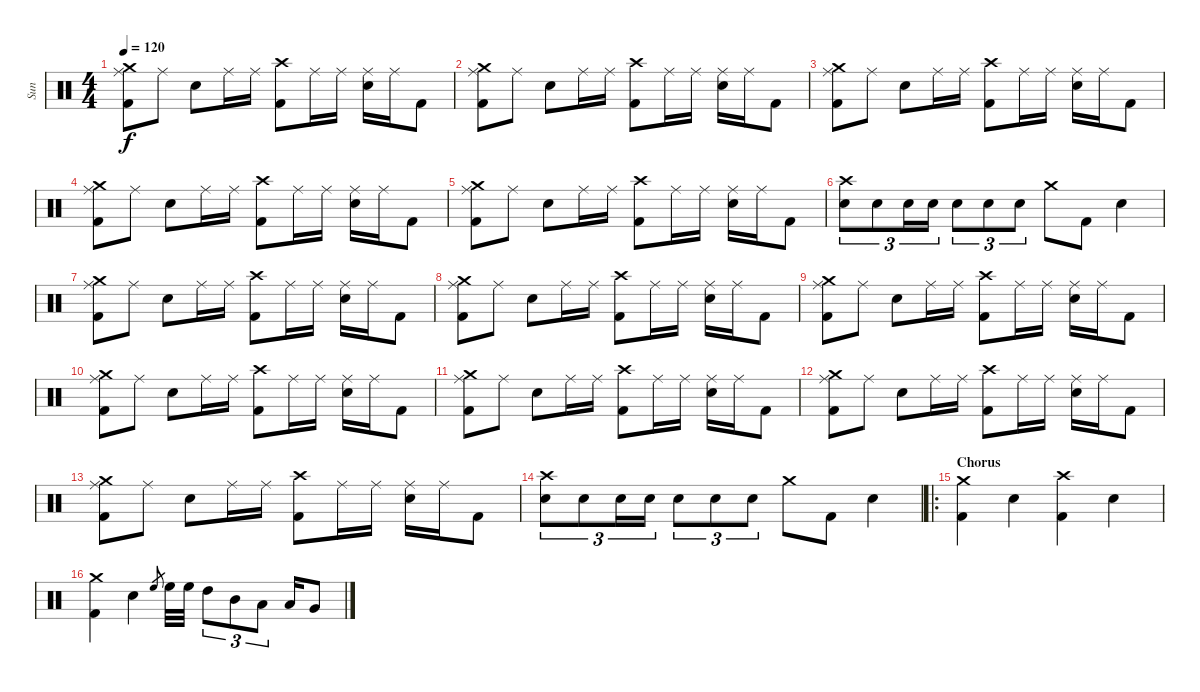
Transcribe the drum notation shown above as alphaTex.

\track ("Sun" "Sun") {instrument percussion}
\staff {score}
\articulation defaults
\ts (4 4)
\tempo 120
\clef neutral
\ks c
("Ride (middle)" "Crash medium (hit)" "Kick (hit) 2").8{dy f} "Ride (middle)".8 "Electric Snare (hit)".8 "Ride (middle)".16 "Ride (middle)".16 ("Crash high (hit)" "Kick (hit) 2").8 "Ride (middle)".16 "Ride (middle)".16 ("Ride (middle)" "Electric Snare (hit)").16 "Ride (middle)".16 "Kick (hit) 2".8 |
("Ride (middle)" "Crash medium (hit)" "Kick (hit) 2").8 "Ride (middle)".8 "Electric Snare (hit)".8 "Ride (middle)".16 "Ride (middle)".16 ("Crash high (hit)" "Kick (hit) 2").8 "Ride (middle)".16 "Ride (middle)".16 ("Ride (middle)" "Electric Snare (hit)").16 "Ride (middle)".16 "Kick (hit) 2".8 |
("Ride (middle)" "Crash medium (hit)" "Kick (hit) 2").8 "Ride (middle)".8 "Electric Snare (hit)".8 "Ride (middle)".16 "Ride (middle)".16 ("Crash high (hit)" "Kick (hit) 2").8 "Ride (middle)".16 "Ride (middle)".16 ("Ride (middle)" "Electric Snare (hit)").16 "Ride (middle)".16 "Kick (hit) 2".8 |
("Ride (middle)" "Crash medium (hit)" "Kick (hit) 2").8 "Ride (middle)".8 "Electric Snare (hit)".8 "Ride (middle)".16 "Ride (middle)".16 ("Crash high (hit)" "Kick (hit) 2").8 "Ride (middle)".16 "Ride (middle)".16 ("Ride (middle)" "Electric Snare (hit)").16 "Ride (middle)".16 "Kick (hit) 2".8 |
("Ride (middle)" "Crash medium (hit)" "Kick (hit) 2").8 "Ride (middle)".8 "Electric Snare (hit)".8 "Ride (middle)".16 "Ride (middle)".16 ("Crash high (hit)" "Kick (hit) 2").8 "Ride (middle)".16 "Ride (middle)".16 ("Ride (middle)" "Electric Snare (hit)").16 "Ride (middle)".16 "Kick (hit) 2".8 |
("Crash high (hit)" "Electric Snare (hit)").8{tu (3 2)} "Electric Snare (hit)".8{tu (3 2)} "Electric Snare (hit)".16{tu (3 2)} "Electric Snare (hit)".16{tu (3 2)} "Electric Snare (hit)".8{tu (3 2)} "Electric Snare (hit)".8{tu (3 2)} "Electric Snare (hit)".8{tu (3 2)} "Crash medium (hit)".8 "Kick (hit) 2".8 "Electric Snare (hit)".4 |
("Ride (middle)" "Crash medium (hit)" "Kick (hit) 2").8 "Ride (middle)".8 "Electric Snare (hit)".8 "Ride (middle)".16 "Ride (middle)".16 ("Crash high (hit)" "Kick (hit) 2").8 "Ride (middle)".16 "Ride (middle)".16 ("Ride (middle)" "Electric Snare (hit)").16 "Ride (middle)".16 "Kick (hit) 2".8 |
("Ride (middle)" "Crash medium (hit)" "Kick (hit) 2").8 "Ride (middle)".8 "Electric Snare (hit)".8 "Ride (middle)".16 "Ride (middle)".16 ("Crash high (hit)" "Kick (hit) 2").8 "Ride (middle)".16 "Ride (middle)".16 ("Ride (middle)" "Electric Snare (hit)").16 "Ride (middle)".16 "Kick (hit) 2".8 |
("Ride (middle)" "Crash medium (hit)" "Kick (hit) 2").8 "Ride (middle)".8 "Electric Snare (hit)".8 "Ride (middle)".16 "Ride (middle)".16 ("Crash high (hit)" "Kick (hit) 2").8 "Ride (middle)".16 "Ride (middle)".16 ("Ride (middle)" "Electric Snare (hit)").16 "Ride (middle)".16 "Kick (hit) 2".8 |
("Ride (middle)" "Crash medium (hit)" "Kick (hit) 2").8 "Ride (middle)".8 "Electric Snare (hit)".8 "Ride (middle)".16 "Ride (middle)".16 ("Crash high (hit)" "Kick (hit) 2").8 "Ride (middle)".16 "Ride (middle)".16 ("Ride (middle)" "Electric Snare (hit)").16 "Ride (middle)".16 "Kick (hit) 2".8 |
("Ride (middle)" "Crash medium (hit)" "Kick (hit) 2").8 "Ride (middle)".8 "Electric Snare (hit)".8 "Ride (middle)".16 "Ride (middle)".16 ("Crash high (hit)" "Kick (hit) 2").8 "Ride (middle)".16 "Ride (middle)".16 ("Ride (middle)" "Electric Snare (hit)").16 "Ride (middle)".16 "Kick (hit) 2".8 |
("Ride (middle)" "Crash medium (hit)" "Kick (hit) 2").8 "Ride (middle)".8 "Electric Snare (hit)".8 "Ride (middle)".16 "Ride (middle)".16 ("Crash high (hit)" "Kick (hit) 2").8 "Ride (middle)".16 "Ride (middle)".16 ("Ride (middle)" "Electric Snare (hit)").16 "Ride (middle)".16 "Kick (hit) 2".8 |
("Ride (middle)" "Crash medium (hit)" "Kick (hit) 2").8 "Ride (middle)".8 "Electric Snare (hit)".8 "Ride (middle)".16 "Ride (middle)".16 ("Crash high (hit)" "Kick (hit) 2").8 "Ride (middle)".16 "Ride (middle)".16 ("Ride (middle)" "Electric Snare (hit)").16 "Ride (middle)".16 "Kick (hit) 2".8 |
("Crash high (hit)" "Electric Snare (hit)").8{tu (3 2)} "Electric Snare (hit)".8{tu (3 2)} "Electric Snare (hit)".16{tu (3 2)} "Electric Snare (hit)".16{tu (3 2)} "Electric Snare (hit)".8{tu (3 2)} "Electric Snare (hit)".8{tu (3 2)} "Electric Snare (hit)".8{tu (3 2)} "Crash medium (hit)".8 "Kick (hit) 2".8 "Electric Snare (hit)".4 |
\ro
\section ("" "Chorus")
("Crash medium (hit)" "Kick (hit) 2").4 "Electric Snare (hit)".4 ("Crash high (hit)" "Kick (hit) 2").4 "Electric Snare (hit)".4 |
("Crash medium (hit)" "Kick (hit) 2").4 "Electric Snare (hit)".4 "High Floor Tom (hit)".8{gr} "High Floor Tom (hit)".32 "High Floor Tom (hit)".32 "High Tom (hit)".8{tu (3 2)} "Mid Tom (hit)".8{tu (3 2)} "Low Tom (hit)".8{tu (3 2)} "Low Tom (hit)".16 "Very Low Tom (hit)".8
